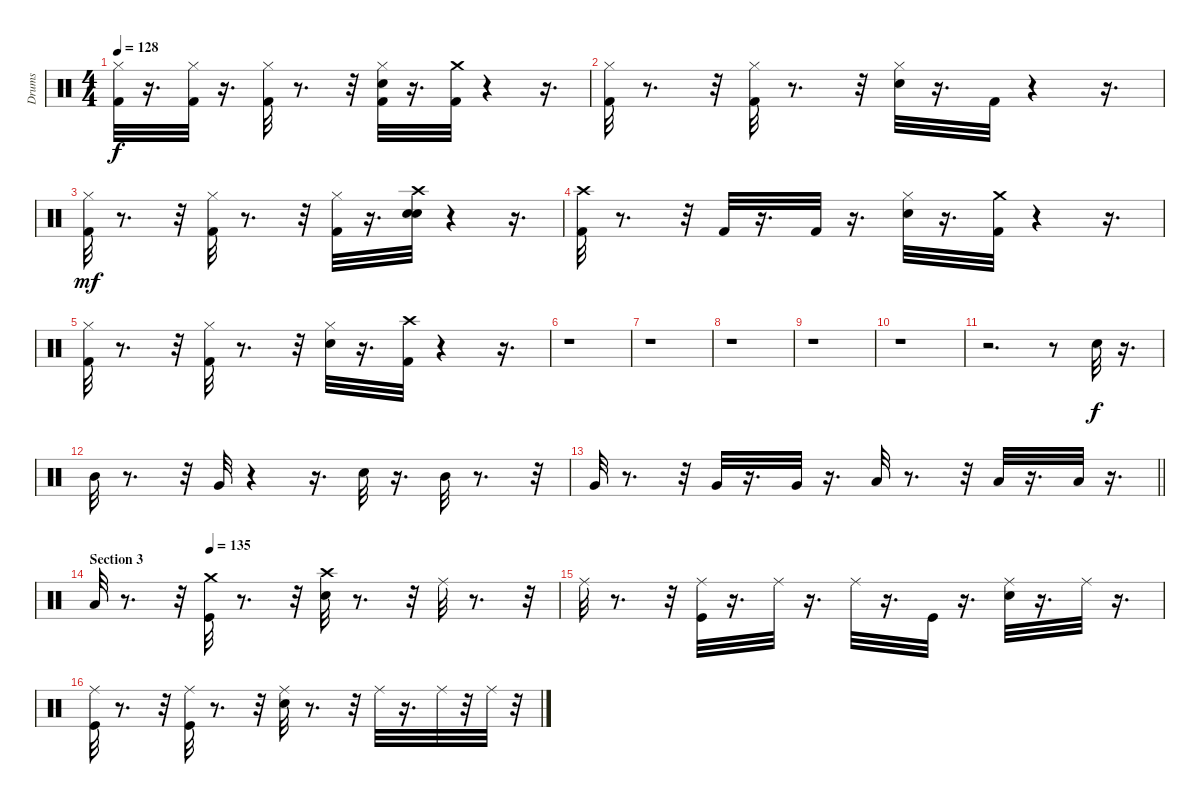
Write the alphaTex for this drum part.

\track ("Drums" "Drums") {instrument percussion}
\staff {score}
\articulation defaults
\ts (4 4)
\tempo 128
\clef neutral
\ks c
("Hi-Hat (closed)" "Kick (hit) 2").32{dy f} r.16{d} ("Hi-Hat (closed)" "Kick (hit) 2").32 r.16{d} ("Hi-Hat (closed)" "Kick (hit) 2").32 r.8{d} r.32 ("Hi-Hat (closed)" "Snare (hit) 2" "Kick (hit) 2").32 r.16{d} ("Crash medium (hit)" "Kick (hit) 2").32 r.4 r.16{d} |
("Kick (hit) 2" "Hi-Hat (closed)").32 r.8{d} r.32 ("Kick (hit) 2" "Hi-Hat (closed)").32 r.8{d} r.32 ("Snare (hit) 2" "Hi-Hat (closed)").32 r.16{d} "Kick (hit) 2".32 r.4 r.16{d} |
("Hi-Hat (closed)" "Kick (hit) 2").32{dy mf} r.8{d} r.32 ("Hi-Hat (closed)" "Kick (hit) 2").32 r.8{d} r.32 ("Hi-Hat (closed)" "Kick (hit) 2").32 r.16{d} ("Electric Snare (hit)" "Crash high (hit)" "Snare (hit) 2").32 r.4 r.16{d} |
("Kick (hit) 2" "Crash high (hit)").32 r.8{d} r.32 "Kick (hit) 2".32 r.16{d} "Kick (hit) 2".32 r.16{d} ("Hi-Hat (closed)" "Snare (hit) 2").32 r.16{d} ("Crash medium (hit)" "Kick (hit) 2").32 r.4 r.16{d} |
("Hi-Hat (closed)" "Kick (hit) 2").32 r.8{d} r.32 ("Hi-Hat (closed)" "Kick (hit) 2").32 r.8{d} r.32 ("Hi-Hat (closed)" "Snare (hit) 2").32 r.16{d} ("Crash high (hit)" "Kick (hit) 2").32 r.4 r.16{d} |
r.1 |
r.1 |
r.1 |
r.1 |
r.1 |
r.2{d} r.8 "Electric Snare (hit)".32{dy f} r.16{d} |
"Mid Tom (hit)".32 r.8{d} r.32 "Very Low Tom (hit)".32 r.4 r.16{d} "Electric Snare (hit)".32 r.16{d} "Mid Tom (hit)".32 r.8{d} r.32 |
\barLineRight lightlight "Very Low Tom (hit)".32
r.8{d} r.32 "Very Low Tom (hit)".32 r.16{d} "Very Low Tom (hit)".32 r.16{d} "Low Floor Tom (hit)".32 r.8{d} r.32 "Low Floor Tom (hit)".32 r.16{d} "Low Floor Tom (hit)".32 r.16{d} |
\section ("" "Section 3")
\tempo (135 0.25)
"Low Floor Tom (hit)".32 r.8{d} r.32 ("Crash medium (hit)" "Kick (hit)").32 r.8{d} r.32 ("Crash high (hit)" "Snare (hit) 2").32 r.8{d} r.32 "Ride (middle)".32 r.8{d} r.32 |
"Ride (middle)".32 r.8{d} r.32 ("Kick (hit)" "Ride (middle)").32 r.16{d} "Ride (middle)".32 r.16{d} "Ride (middle)".32 r.16{d} "Kick (hit)".32 r.16{d} ("Snare (hit) 2" "Ride (middle)").32 r.16{d} "Ride (middle)".32 r.16{d} |
("Ride (middle)" "Kick (hit)").32 r.8{d} r.32 ("Ride (middle)" "Kick (hit)").32 r.8{d} r.32 ("Ride (middle)" "Snare (hit) 2").32 r.8{d} r.32 "Ride (middle)".32 r.16{d} "Ride (middle)".32 r.32 "Ride (middle)".32 r.32
